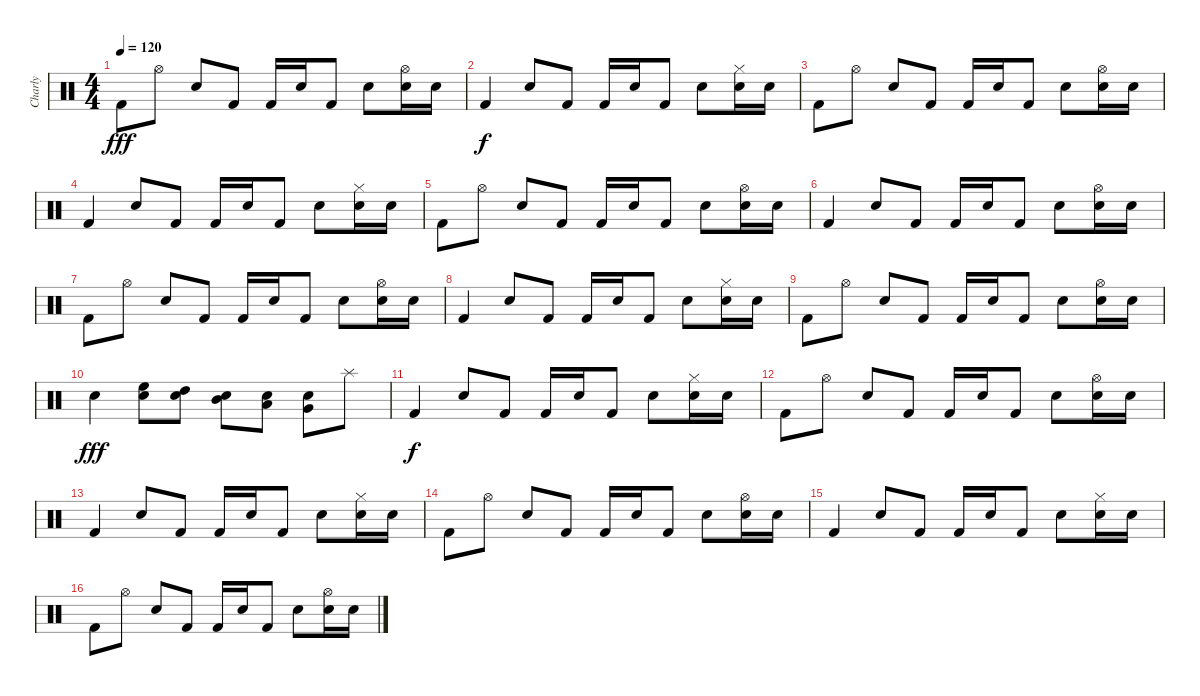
\track ("Charly" "Charly") {instrument percussion}
\staff {score}
\articulation defaults
\ts (4 4)
\tempo 120
\clef neutral
\ks c "Kick (hit) 2".8{dy fff} "Hi-Hat (open)".8 "Snare (hit) 2".8 "Kick (hit) 2".8 "Kick (hit) 2".16 "Snare (hit) 2".16 "Kick (hit) 2".8 "Snare (hit) 2".8
("Hi-Hat (open)" "Snare (hit) 2").16 "Snare (hit) 2".16 |
"Kick (hit) 2".4{dy f} "Snare (hit) 2".8 "Kick (hit) 2".8 "Kick (hit) 2".16 "Snare (hit) 2".16 "Kick (hit) 2".8 "Snare (hit) 2".8 ("Hi-Hat (closed)" "Snare (hit) 2").16 "Snare (hit) 2".16 |
"Kick (hit) 2".8 "Hi-Hat (open)".8 "Snare (hit) 2".8 "Kick (hit) 2".8 "Kick (hit) 2".16 "Snare (hit) 2".16 "Kick (hit) 2".8 "Snare (hit) 2".8 ("Hi-Hat (open)" "Snare (hit) 2").16 "Snare (hit) 2".16 |
"Kick (hit) 2".4 "Snare (hit) 2".8 "Kick (hit) 2".8 "Kick (hit) 2".16 "Snare (hit) 2".16 "Kick (hit) 2".8 "Snare (hit) 2".8 ("Hi-Hat (closed)" "Snare (hit) 2").16 "Snare (hit) 2".16 |
"Kick (hit) 2".8 "Hi-Hat (open)".8 "Snare (hit) 2".8 "Kick (hit) 2".8 "Kick (hit) 2".16 "Snare (hit) 2".16 "Kick (hit) 2".8 "Snare (hit) 2".8 ("Hi-Hat (open)" "Snare (hit) 2").16 "Snare (hit) 2".16 |
"Kick (hit) 2".4 "Snare (hit) 2".8 "Kick (hit) 2".8 "Kick (hit) 2".16 "Snare (hit) 2".16 "Kick (hit) 2".8 "Snare (hit) 2".8 ("Hi-Hat (open)" "Snare (hit) 2").16 "Snare (hit) 2".16 |
"Kick (hit) 2".8 "Hi-Hat (open)".8 "Snare (hit) 2".8 "Kick (hit) 2".8 "Kick (hit) 2".16 "Snare (hit) 2".16 "Kick (hit) 2".8 "Snare (hit) 2".8 ("Hi-Hat (open)" "Snare (hit) 2").16 "Snare (hit) 2".16 |
"Kick (hit) 2".4 "Snare (hit) 2".8 "Kick (hit) 2".8 "Kick (hit) 2".16 "Snare (hit) 2".16 "Kick (hit) 2".8 "Snare (hit) 2".8 ("Hi-Hat (closed)" "Snare (hit) 2").16 "Snare (hit) 2".16 |
"Kick (hit) 2".8 "Hi-Hat (open)".8 "Snare (hit) 2".8 "Kick (hit) 2".8 "Kick (hit) 2".16 "Snare (hit) 2".16 "Kick (hit) 2".8 "Snare (hit) 2".8 ("Hi-Hat (open)" "Snare (hit) 2").16 "Snare (hit) 2".16 |
"Snare (hit) 2".4{dy fff} ("High Floor Tom (hit)" "Snare (hit) 2").8 ("High Tom (hit)" "Snare (hit) 2").8 ("Mid Tom (hit)" "Snare (hit) 2").8 ("Low Tom (hit)" "Snare (hit) 2").8 ("Very Low Tom (hit)" "Snare (hit) 2").8 "Splash (hit)".8 |
"Kick (hit) 2".4{dy f} "Snare (hit) 2".8 "Kick (hit) 2".8 "Kick (hit) 2".16 "Snare (hit) 2".16 "Kick (hit) 2".8 "Snare (hit) 2".8 ("Hi-Hat (closed)" "Snare (hit) 2").16 "Snare (hit) 2".16 |
"Kick (hit) 2".8 "Hi-Hat (open)".8 "Snare (hit) 2".8 "Kick (hit) 2".8 "Kick (hit) 2".16 "Snare (hit) 2".16 "Kick (hit) 2".8 "Snare (hit) 2".8 ("Hi-Hat (open)" "Snare (hit) 2").16 "Snare (hit) 2".16 |
"Kick (hit) 2".4 "Snare (hit) 2".8 "Kick (hit) 2".8 "Kick (hit) 2".16 "Snare (hit) 2".16 "Kick (hit) 2".8 "Snare (hit) 2".8 ("Hi-Hat (closed)" "Snare (hit) 2").16 "Snare (hit) 2".16 |
"Kick (hit) 2".8 "Hi-Hat (open)".8 "Snare (hit) 2".8 "Kick (hit) 2".8 "Kick (hit) 2".16 "Snare (hit) 2".16 "Kick (hit) 2".8 "Snare (hit) 2".8 ("Hi-Hat (open)" "Snare (hit) 2").16 "Snare (hit) 2".16 |
"Kick (hit) 2".4 "Snare (hit) 2".8 "Kick (hit) 2".8 "Kick (hit) 2".16 "Snare (hit) 2".16 "Kick (hit) 2".8 "Snare (hit) 2".8 ("Hi-Hat (closed)" "Snare (hit) 2").16 "Snare (hit) 2".16 |
"Kick (hit) 2".8 "Hi-Hat (open)".8 "Snare (hit) 2".8 "Kick (hit) 2".8 "Kick (hit) 2".16 "Snare (hit) 2".16 "Kick (hit) 2".8 "Snare (hit) 2".8 ("Hi-Hat (open)" "Snare (hit) 2").16 "Snare (hit) 2".16
